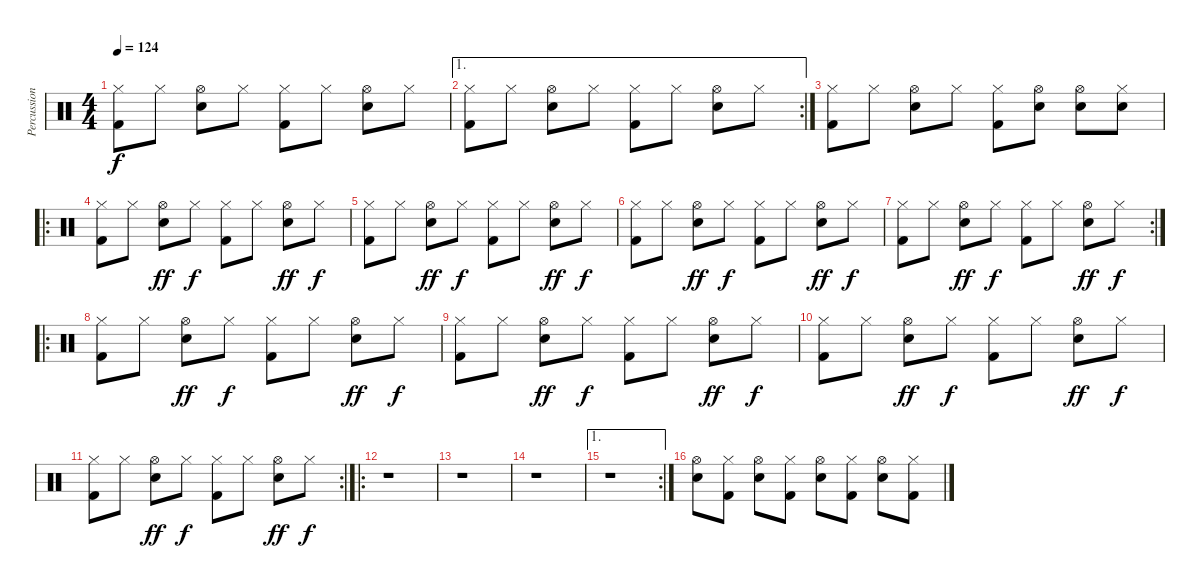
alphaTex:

\track ("Percussion" "Percussion") {instrument percussion}
\staff {score}
\articulation defaults
\ts (4 4)
\tempo 124
\clef neutral
\ks c
("Hi-Hat (closed)" "Kick (hit) 2").8{dy f} "Hi-Hat (closed)".8 ("Hi-Hat (open)" "Snare (hit) 2").8 "Hi-Hat (closed)".8 ("Hi-Hat (closed)" "Kick (hit) 2").8 "Hi-Hat (closed)".8 ("Hi-Hat (open)" "Snare (hit) 2").8 "Hi-Hat (closed)".8 |
\ae 1
\rc 2
("Hi-Hat (closed)" "Kick (hit) 2").8 "Hi-Hat (closed)".8 ("Hi-Hat (open)" "Snare (hit) 2").8 "Hi-Hat (closed)".8 ("Hi-Hat (closed)" "Kick (hit) 2").8 "Hi-Hat (closed)".8 ("Hi-Hat (open)" "Snare (hit) 2").8 "Hi-Hat (closed)".8 |
("Hi-Hat (closed)" "Kick (hit) 2").8 "Hi-Hat (closed)".8 ("Hi-Hat (open)" "Snare (hit) 2").8 "Hi-Hat (closed)".8 ("Hi-Hat (closed)" "Kick (hit) 2").8 ("Hi-Hat (open)" "Snare (hit) 2").8 ("Hi-Hat (open)" "Snare (hit) 2").8 ("Hi-Hat (closed)" "Snare (hit) 2").8 |
\ro
("Hi-Hat (closed)" "Kick (hit) 2").8 "Hi-Hat (closed)".8 ("Hi-Hat (open)" "Snare (hit) 2").8{dy ff} "Hi-Hat (closed)".8{dy f} ("Hi-Hat (closed)" "Kick (hit) 2").8 "Hi-Hat (closed)".8 ("Hi-Hat (open)" "Snare (hit) 2").8{dy ff} "Hi-Hat (closed)".8{dy f} |
("Hi-Hat (closed)" "Kick (hit) 2").8 "Hi-Hat (closed)".8 ("Hi-Hat (open)" "Snare (hit) 2").8{dy ff} "Hi-Hat (closed)".8{dy f} ("Hi-Hat (closed)" "Kick (hit) 2").8 "Hi-Hat (closed)".8 ("Hi-Hat (open)" "Snare (hit) 2").8{dy ff} "Hi-Hat (closed)".8{dy f} |
("Hi-Hat (closed)" "Kick (hit) 2").8 "Hi-Hat (closed)".8 ("Hi-Hat (open)" "Snare (hit) 2").8{dy ff} "Hi-Hat (closed)".8{dy f} ("Hi-Hat (closed)" "Kick (hit) 2").8 "Hi-Hat (closed)".8 ("Hi-Hat (open)" "Snare (hit) 2").8{dy ff} "Hi-Hat (closed)".8{dy f} |
\rc 2
("Hi-Hat (closed)" "Kick (hit) 2").8 "Hi-Hat (closed)".8 ("Hi-Hat (open)" "Snare (hit) 2").8{dy ff} "Hi-Hat (closed)".8{dy f} ("Hi-Hat (closed)" "Kick (hit) 2").8 "Hi-Hat (closed)".8 ("Hi-Hat (open)" "Snare (hit) 2").8{dy ff} "Hi-Hat (closed)".8{dy f} |
\ro
("Hi-Hat (closed)" "Kick (hit) 2").8 "Hi-Hat (closed)".8 ("Hi-Hat (open)" "Snare (hit) 2").8{dy ff} "Hi-Hat (closed)".8{dy f} ("Hi-Hat (closed)" "Kick (hit) 2").8 "Hi-Hat (closed)".8 ("Hi-Hat (open)" "Snare (hit) 2").8{dy ff} "Hi-Hat (closed)".8{dy f} |
("Hi-Hat (closed)" "Kick (hit) 2").8 "Hi-Hat (closed)".8 ("Hi-Hat (open)" "Snare (hit) 2").8{dy ff} "Hi-Hat (closed)".8{dy f} ("Hi-Hat (closed)" "Kick (hit) 2").8 "Hi-Hat (closed)".8 ("Hi-Hat (open)" "Snare (hit) 2").8{dy ff} "Hi-Hat (closed)".8{dy f} |
("Hi-Hat (closed)" "Kick (hit) 2").8 "Hi-Hat (closed)".8 ("Hi-Hat (open)" "Snare (hit) 2").8{dy ff} "Hi-Hat (closed)".8{dy f} ("Hi-Hat (closed)" "Kick (hit) 2").8 "Hi-Hat (closed)".8 ("Hi-Hat (open)" "Snare (hit) 2").8{dy ff} "Hi-Hat (closed)".8{dy f} |
\rc 2
("Hi-Hat (closed)" "Kick (hit) 2").8 "Hi-Hat (closed)".8 ("Hi-Hat (open)" "Snare (hit) 2").8{dy ff} "Hi-Hat (closed)".8{dy f} ("Hi-Hat (closed)" "Kick (hit) 2").8 "Hi-Hat (closed)".8 ("Hi-Hat (open)" "Snare (hit) 2").8{dy ff} "Hi-Hat (closed)".8{dy f} |
\ro
r.1 |
r.1 |
r.1 |
\ae 1
\rc 2
r.1 |
("Hi-Hat (open)" "Snare (hit) 2").8 ("Hi-Hat (closed)" "Kick (hit) 2").8 ("Hi-Hat (open)" "Snare (hit) 2").8 ("Hi-Hat (closed)" "Kick (hit) 2").8 ("Hi-Hat (open)" "Snare (hit) 2").8 ("Hi-Hat (closed)" "Kick (hit) 2").8 ("Hi-Hat (open)" "Snare (hit) 2").8 ("Hi-Hat (closed)" "Kick (hit) 2").8
